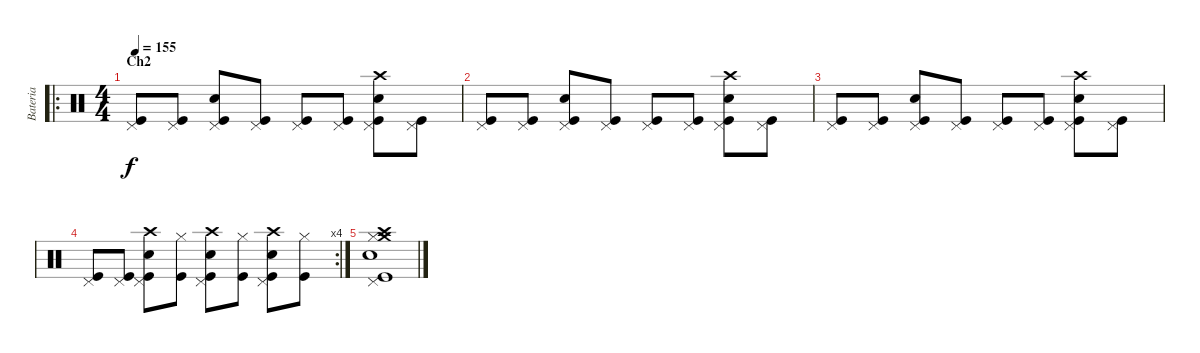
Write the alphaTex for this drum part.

\track ("Bateria" "Bateria") {instrument percussion}
\staff {score}
\articulation defaults
\ro
\ts (4 4)
\section ("" "Ch2")
\tempo 155
\clef neutral
\ks c
("Pedal Hi-Hat (hit)" "Kick (hit)").8{dy f} ("Pedal Hi-Hat (hit)" "Kick (hit)").8 ("Pedal Hi-Hat (hit)" "Electric Snare (hit)" "Kick (hit)").8 ("Pedal Hi-Hat (hit)" "Kick (hit)").8 ("Pedal Hi-Hat (hit)" "Kick (hit)").8 ("Pedal Hi-Hat (hit)" "Kick (hit)").8 ("Pedal Hi-Hat (hit)" "Crash high (hit)" "Electric Snare (hit)" "Kick (hit)").8 ("Pedal Hi-Hat (hit)" "Kick (hit)").8 |
("Pedal Hi-Hat (hit)" "Kick (hit)").8 ("Pedal Hi-Hat (hit)" "Kick (hit)").8 ("Pedal Hi-Hat (hit)" "Electric Snare (hit)" "Kick (hit)").8 ("Pedal Hi-Hat (hit)" "Kick (hit)").8 ("Pedal Hi-Hat (hit)" "Kick (hit)").8 ("Pedal Hi-Hat (hit)" "Kick (hit)").8 ("Pedal Hi-Hat (hit)" "Crash high (hit)" "Electric Snare (hit)" "Kick (hit)").8 ("Pedal Hi-Hat (hit)" "Kick (hit)").8 |
("Pedal Hi-Hat (hit)" "Kick (hit)").8 ("Pedal Hi-Hat (hit)" "Kick (hit)").8 ("Pedal Hi-Hat (hit)" "Electric Snare (hit)" "Kick (hit)").8 ("Pedal Hi-Hat (hit)" "Kick (hit)").8 ("Pedal Hi-Hat (hit)" "Kick (hit)").8 ("Pedal Hi-Hat (hit)" "Kick (hit)").8 ("Pedal Hi-Hat (hit)" "Crash high (hit)" "Electric Snare (hit)" "Kick (hit)").8 ("Pedal Hi-Hat (hit)" "Kick (hit)").8 |
\rc 4
("Pedal Hi-Hat (hit)" "Kick (hit)").8 ("Pedal Hi-Hat (hit)" "Kick (hit)").8 ("Pedal Hi-Hat (hit)" "Electric Snare (hit)" "Crash high (hit)" "Kick (hit)").8 ("Hi-Hat (closed)" "Kick (hit)").8 ("Pedal Hi-Hat (hit)" "Electric Snare (hit)" "Crash high (hit)" "Kick (hit)").8 ("Hi-Hat (closed)" "Kick (hit)").8 ("Pedal Hi-Hat (hit)" "Electric Snare (hit)" "Crash high (hit)" "Kick (hit)").8 ("Hi-Hat (closed)" "Kick (hit)").8 |
("Pedal Hi-Hat (hit)" "Hi-Hat (closed)" "Crash high (hit)" "Crash medium (hit)" "Snare (hit) 2" "Kick (hit)").1
